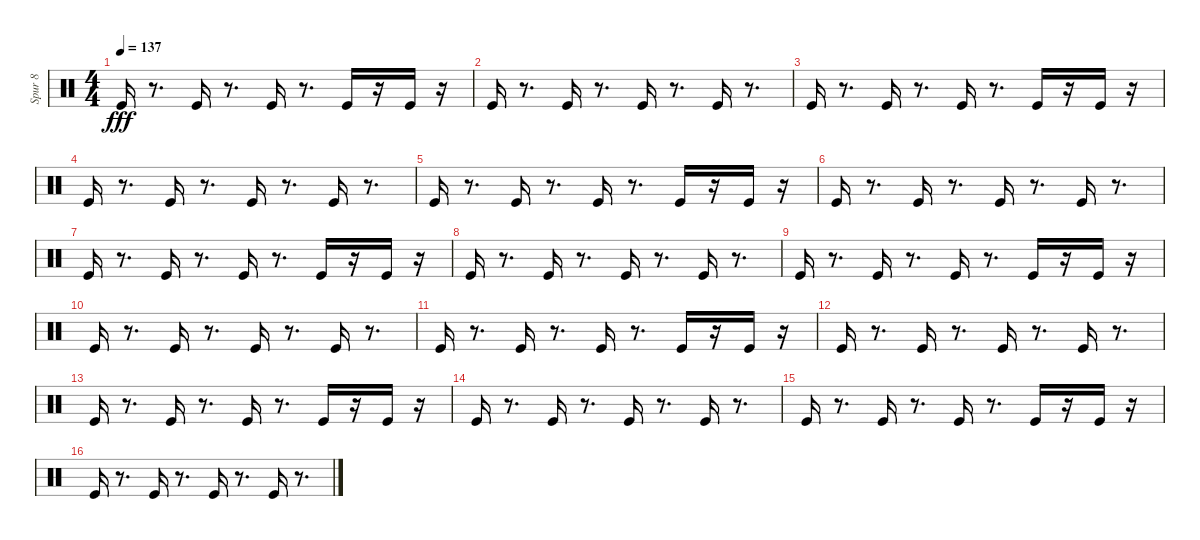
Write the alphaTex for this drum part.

\track ("Spur 8" "Spur 8") {instrument percussion}
\staff {score}
\articulation defaults
\ts (4 4)
\tempo 137
\clef neutral
\ks c "Kick (hit)".16{dy fff}
r.8{d} "Kick (hit)".16 r.8{d} "Kick (hit)".16 r.8{d} "Kick (hit)".16 r.16 "Kick (hit)".16 r.16 |
"Kick (hit)".16 r.8{d} "Kick (hit)".16 r.8{d} "Kick (hit)".16 r.8{d} "Kick (hit)".16 r.8{d} |
"Kick (hit)".16 r.8{d} "Kick (hit)".16 r.8{d} "Kick (hit)".16 r.8{d} "Kick (hit)".16 r.16 "Kick (hit)".16 r.16 |
"Kick (hit)".16 r.8{d} "Kick (hit)".16 r.8{d} "Kick (hit)".16 r.8{d} "Kick (hit)".16 r.8{d} |
"Kick (hit)".16 r.8{d} "Kick (hit)".16 r.8{d} "Kick (hit)".16 r.8{d} "Kick (hit)".16 r.16 "Kick (hit)".16 r.16 |
"Kick (hit)".16 r.8{d} "Kick (hit)".16 r.8{d} "Kick (hit)".16 r.8{d} "Kick (hit)".16 r.8{d} |
"Kick (hit)".16 r.8{d} "Kick (hit)".16 r.8{d} "Kick (hit)".16 r.8{d} "Kick (hit)".16 r.16 "Kick (hit)".16 r.16 |
"Kick (hit)".16 r.8{d} "Kick (hit)".16 r.8{d} "Kick (hit)".16 r.8{d} "Kick (hit)".16 r.8{d} |
"Kick (hit)".16 r.8{d} "Kick (hit)".16 r.8{d} "Kick (hit)".16 r.8{d} "Kick (hit)".16 r.16 "Kick (hit)".16 r.16 |
"Kick (hit)".16 r.8{d} "Kick (hit)".16 r.8{d} "Kick (hit)".16 r.8{d} "Kick (hit)".16 r.8{d} |
"Kick (hit)".16 r.8{d} "Kick (hit)".16 r.8{d} "Kick (hit)".16 r.8{d} "Kick (hit)".16 r.16 "Kick (hit)".16 r.16 |
"Kick (hit)".16 r.8{d} "Kick (hit)".16 r.8{d} "Kick (hit)".16 r.8{d} "Kick (hit)".16 r.8{d} |
"Kick (hit)".16 r.8{d} "Kick (hit)".16 r.8{d} "Kick (hit)".16 r.8{d} "Kick (hit)".16 r.16 "Kick (hit)".16 r.16 |
"Kick (hit)".16 r.8{d} "Kick (hit)".16 r.8{d} "Kick (hit)".16 r.8{d} "Kick (hit)".16 r.8{d} |
"Kick (hit)".16 r.8{d} "Kick (hit)".16 r.8{d} "Kick (hit)".16 r.8{d} "Kick (hit)".16 r.16 "Kick (hit)".16 r.16 |
"Kick (hit)".16 r.8{d} "Kick (hit)".16 r.8{d} "Kick (hit)".16 r.8{d} "Kick (hit)".16 r.8{d}
